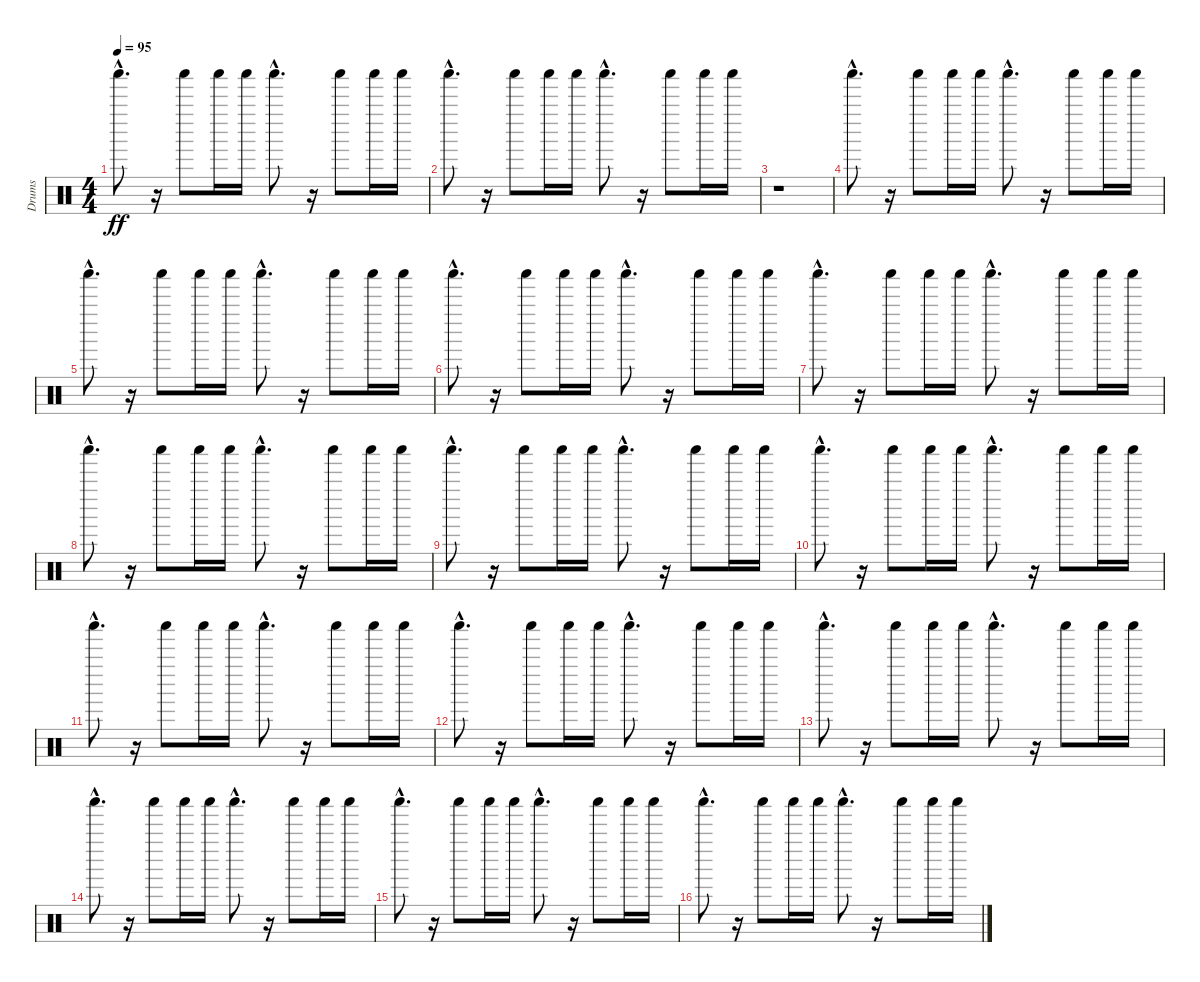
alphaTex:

\track ("Drums" "Drums") {instrument percussion}
\staff {score}
\articulation defaults
\ts (4 4)
\tempo 95
\clef neutral
\ks c "Shaker (hit)"{hac}.8{d dy ff}
r.16 "Shaker (hit)".8 "Shaker (hit)".16 "Shaker (hit)".16 "Shaker (hit)"{hac}.8{d} r.16 "Shaker (hit)".8 "Shaker (hit)".16 "Shaker (hit)".16 |
"Shaker (hit)"{hac}.8{d} r.16 "Shaker (hit)".8 "Shaker (hit)".16 "Shaker (hit)".16 "Shaker (hit)"{hac}.8{d} r.16 "Shaker (hit)".8 "Shaker (hit)".16 "Shaker (hit)".16 |
r.1 |
"Shaker (hit)"{hac}.8{d} r.16 "Shaker (hit)".8 "Shaker (hit)".16 "Shaker (hit)".16 "Shaker (hit)"{hac}.8{d} r.16 "Shaker (hit)".8 "Shaker (hit)".16 "Shaker (hit)".16 |
"Shaker (hit)"{hac}.8{d} r.16 "Shaker (hit)".8 "Shaker (hit)".16 "Shaker (hit)".16 "Shaker (hit)"{hac}.8{d} r.16 "Shaker (hit)".8 "Shaker (hit)".16 "Shaker (hit)".16 |
"Shaker (hit)"{hac}.8{d} r.16 "Shaker (hit)".8 "Shaker (hit)".16 "Shaker (hit)".16 "Shaker (hit)"{hac}.8{d} r.16 "Shaker (hit)".8 "Shaker (hit)".16 "Shaker (hit)".16 |
"Shaker (hit)"{hac}.8{d} r.16 "Shaker (hit)".8 "Shaker (hit)".16 "Shaker (hit)".16 "Shaker (hit)"{hac}.8{d} r.16 "Shaker (hit)".8 "Shaker (hit)".16 "Shaker (hit)".16 |
"Shaker (hit)"{hac}.8{d} r.16 "Shaker (hit)".8 "Shaker (hit)".16 "Shaker (hit)".16 "Shaker (hit)"{hac}.8{d} r.16 "Shaker (hit)".8 "Shaker (hit)".16 "Shaker (hit)".16 |
"Shaker (hit)"{hac}.8{d} r.16 "Shaker (hit)".8 "Shaker (hit)".16 "Shaker (hit)".16 "Shaker (hit)"{hac}.8{d} r.16 "Shaker (hit)".8 "Shaker (hit)".16 "Shaker (hit)".16 |
"Shaker (hit)"{hac}.8{d} r.16 "Shaker (hit)".8 "Shaker (hit)".16 "Shaker (hit)".16 "Shaker (hit)"{hac}.8{d} r.16 "Shaker (hit)".8 "Shaker (hit)".16 "Shaker (hit)".16 |
"Shaker (hit)"{hac}.8{d} r.16 "Shaker (hit)".8 "Shaker (hit)".16 "Shaker (hit)".16 "Shaker (hit)"{hac}.8{d} r.16 "Shaker (hit)".8 "Shaker (hit)".16 "Shaker (hit)".16 |
"Shaker (hit)"{hac}.8{d} r.16 "Shaker (hit)".8 "Shaker (hit)".16 "Shaker (hit)".16 "Shaker (hit)"{hac}.8{d} r.16 "Shaker (hit)".8 "Shaker (hit)".16 "Shaker (hit)".16 |
"Shaker (hit)"{hac}.8{d} r.16 "Shaker (hit)".8 "Shaker (hit)".16 "Shaker (hit)".16 "Shaker (hit)"{hac}.8{d} r.16 "Shaker (hit)".8 "Shaker (hit)".16 "Shaker (hit)".16 |
"Shaker (hit)"{hac}.8{d} r.16 "Shaker (hit)".8 "Shaker (hit)".16 "Shaker (hit)".16 "Shaker (hit)"{hac}.8{d} r.16 "Shaker (hit)".8 "Shaker (hit)".16 "Shaker (hit)".16 |
"Shaker (hit)"{hac}.8{d} r.16 "Shaker (hit)".8 "Shaker (hit)".16 "Shaker (hit)".16 "Shaker (hit)"{hac}.8{d} r.16 "Shaker (hit)".8 "Shaker (hit)".16 "Shaker (hit)".16 |
"Shaker (hit)"{hac}.8{d} r.16 "Shaker (hit)".8 "Shaker (hit)".16 "Shaker (hit)".16 "Shaker (hit)"{hac}.8{d} r.16 "Shaker (hit)".8 "Shaker (hit)".16 "Shaker (hit)".16
